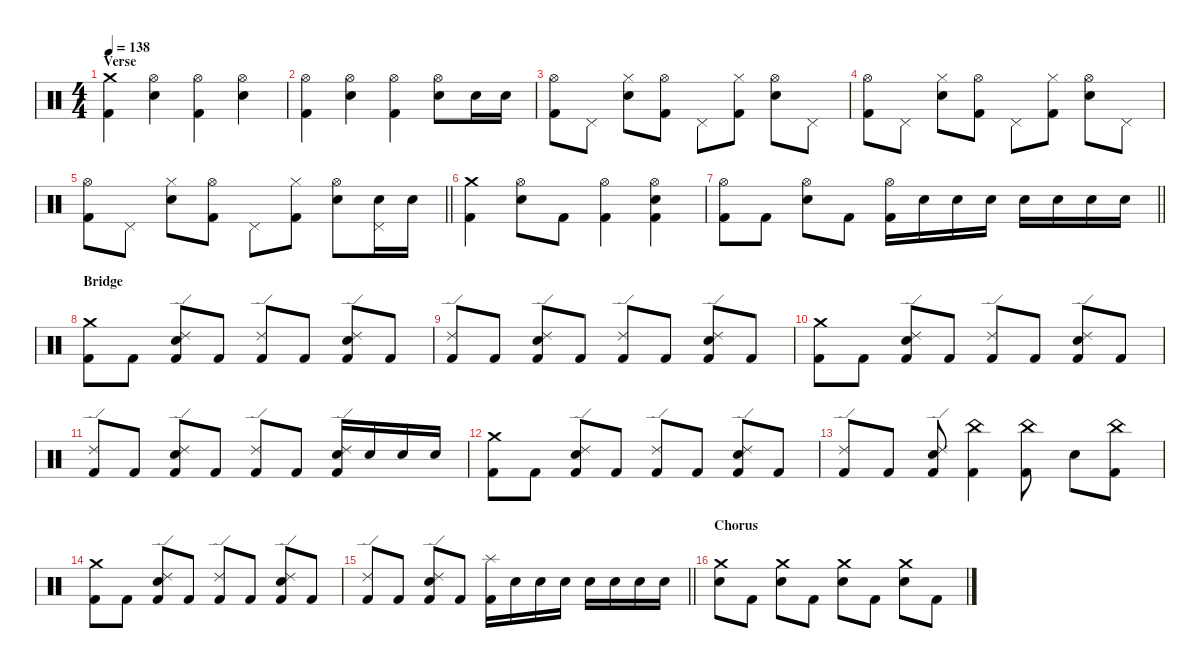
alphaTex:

\defaultSystemsLayout 4
\hideDynamics
\bracketExtendMode nobrackets
\singleTrackTrackNamePolicy hidden
\multiTrackTrackNamePolicy hidden
\firstSystemTrackNameMode fullname
\firstSystemTrackNameOrientation horizontal
\otherSystemsTrackNameOrientation horizontal
\track ("Drums" "drm.") {instrument percussion}
\staff {score}
\articulation defaults
\ts (4 4)
\section ("" "Verse")
\tempo 138
\clef neutral
\ks c
("Crash medium (hit)" "Kick (hit) 2").4{dy f beam Down} ("Hi-Hat (open)" "Snare (hit) 2").4{beam Down} ("Hi-Hat (open)" "Kick (hit) 2").4{beam Down} ("Hi-Hat (open)" "Snare (hit) 2").4{beam Down} |
("Hi-Hat (open)" "Kick (hit) 2").4{beam Down} ("Hi-Hat (open)" "Snare (hit) 2").4{beam Down} ("Hi-Hat (open)" "Kick (hit) 2").4{beam Down} ("Hi-Hat (open)" "Snare (hit) 2").8{beam Down} "Snare (hit) 2".16{beam Down} "Snare (hit) 2".16{beam Down} |
("Hi-Hat (open)" "Kick (hit) 2").8{beam Down} "Pedal Hi-Hat (hit)".8{beam Down} ("Hi-Hat (closed)" "Snare (hit) 2").8{beam Down} ("Hi-Hat (open)" "Kick (hit) 2").8{beam Down} "Pedal Hi-Hat (hit)".8{beam Down} ("Hi-Hat (closed)" "Kick (hit) 2").8{beam Down} ("Hi-Hat (open)" "Snare (hit) 2").8{beam Down} "Pedal Hi-Hat (hit)".8{beam Down} |
("Hi-Hat (open)" "Kick (hit) 2").8{beam Down} "Pedal Hi-Hat (hit)".8{beam Down} ("Hi-Hat (closed)" "Snare (hit) 2").8{beam Down} ("Hi-Hat (open)" "Kick (hit) 2").8{beam Down} "Pedal Hi-Hat (hit)".8{beam Down} ("Hi-Hat (closed)" "Kick (hit) 2").8{beam Down} ("Hi-Hat (open)" "Snare (hit) 2").8{beam Down} "Pedal Hi-Hat (hit)".8{beam Down} |
\barLineRight lightlight
("Hi-Hat (open)" "Kick (hit) 2").8{beam Down} "Pedal Hi-Hat (hit)".8{beam Down} ("Hi-Hat (closed)" "Snare (hit) 2").8{beam Down} ("Hi-Hat (open)" "Kick (hit) 2").8{beam Down} "Pedal Hi-Hat (hit)".8{beam Down} ("Hi-Hat (closed)" "Kick (hit) 2").8{beam Down} ("Hi-Hat (open)" "Snare (hit) 2").8{beam Down} ("Pedal Hi-Hat (hit)" "Snare (hit) 2").16{beam Down} "Snare (hit) 2".16{beam Down} |
("Crash medium (hit)" "Kick (hit) 2").4{beam Down} ("Hi-Hat (open)" "Snare (hit) 2").8{beam Down} "Kick (hit) 2".8{beam Down} ("Hi-Hat (open)" "Kick (hit) 2").4{beam Down} ("Hi-Hat (open)" "Snare (hit) 2" "Kick (hit) 2").4{beam Down} |
\barLineRight lightlight
("Hi-Hat (open)" "Kick (hit) 2").8{beam Down} "Kick (hit) 2".8{beam Down} ("Hi-Hat (open)" "Snare (hit) 2").8{beam Down} "Kick (hit) 2".8{beam Down} ("Hi-Hat (open)" "Kick (hit) 2").16{beam Down} "Snare (hit) 2".16{beam Down} "Snare (hit) 2".16{beam Down} "Snare (hit) 2".16{beam Down} "Snare (hit) 2".16{beam Down} "Snare (hit) 2".16{beam Down} "Snare (hit) 2".16{beam Down} "Snare (hit) 2".16{beam Down} |
\section ("" "Bridge")
("Crash medium (hit)" "Kick (hit) 2").8{beam Down} "Kick (hit) 2".8{beam Down} ("Ride (edge) 2" "Snare (hit) 2" "Kick (hit) 2").8{beam Up} "Kick (hit) 2".8{beam Up} ("Ride (edge) 2" "Kick (hit) 2").8{beam Up} "Kick (hit) 2".8{beam Up} ("Ride (edge) 2" "Snare (hit) 2" "Kick (hit) 2").8{beam Up} "Kick (hit) 2".8{beam Up} |
("Ride (edge) 2" "Kick (hit) 2").8{beam Up} "Kick (hit) 2".8{beam Up} ("Ride (edge) 2" "Snare (hit) 2" "Kick (hit) 2").8{beam Up} "Kick (hit) 2".8{beam Up} ("Ride (edge) 2" "Kick (hit) 2").8{beam Up} "Kick (hit) 2".8{beam Up} ("Ride (edge) 2" "Snare (hit) 2" "Kick (hit) 2").8{beam Up} "Kick (hit) 2".8{beam Up} |
("Crash medium (hit)" "Kick (hit) 2").8{beam Down} "Kick (hit) 2".8{beam Down} ("Ride (edge) 2" "Snare (hit) 2" "Kick (hit) 2").8{beam Up} "Kick (hit) 2".8{beam Up} ("Ride (edge) 2" "Kick (hit) 2").8{beam Up} "Kick (hit) 2".8{beam Up} ("Ride (edge) 2" "Snare (hit) 2" "Kick (hit) 2").8{beam Up} "Kick (hit) 2".8{beam Up} |
("Ride (edge) 2" "Kick (hit) 2").8{beam Up} "Kick (hit) 2".8{beam Up} ("Ride (edge) 2" "Snare (hit) 2" "Kick (hit) 2").8{beam Up} "Kick (hit) 2".8{beam Up} ("Ride (edge) 2" "Kick (hit) 2").8{beam Up} "Kick (hit) 2".8{beam Up} ("Ride (edge) 2" "Snare (hit) 2" "Kick (hit) 2").16{beam Up} "Snare (hit) 2".16{beam Up} "Snare (hit) 2".16{beam Up} "Snare (hit) 2".16{beam Up} |
("Crash medium (hit)" "Kick (hit) 2").8{beam Down} "Kick (hit) 2".8{beam Down} ("Ride (edge) 2" "Snare (hit) 2" "Kick (hit) 2").8{beam Up} "Kick (hit) 2".8{beam Up} ("Ride (edge) 2" "Kick (hit) 2").8{beam Up} "Kick (hit) 2".8{beam Up} ("Ride (edge) 2" "Snare (hit) 2" "Kick (hit) 2").8{beam Up} "Kick (hit) 2".8{beam Up} |
("Ride (edge) 2" "Kick (hit) 2").8{beam Up} "Kick (hit) 2".8{beam Up} ("Ride (edge) 2" "Snare (hit) 2" "Kick (hit) 2").8{beam Up} ("China (hit)" "Kick (hit) 2").4{beam Down} ("China (hit)" "Kick (hit) 2").8{beam Down} "Snare (hit) 2".8{beam Down} ("China (hit)" "Kick (hit) 2").8{beam Down} |
("Crash medium (hit)" "Kick (hit) 2").8{beam Down} "Kick (hit) 2".8{beam Down} ("Ride (edge) 2" "Snare (hit) 2" "Kick (hit) 2").8{beam Up} "Kick (hit) 2".8{beam Up} ("Ride (edge) 2" "Kick (hit) 2").8{beam Up} "Kick (hit) 2".8{beam Up} ("Ride (edge) 2" "Snare (hit) 2" "Kick (hit) 2").8{beam Up} "Kick (hit) 2".8{beam Up} |
\barLineRight lightlight
("Ride (edge) 2" "Kick (hit) 2").8{beam Up} "Kick (hit) 2".8{beam Up} ("Ride (edge) 2" "Snare (hit) 2" "Kick (hit) 2").8{beam Up} "Kick (hit) 2".8{beam Up} ("Splash (hit)" "Kick (hit) 2").16{beam Down} "Snare (hit) 2".16{beam Down} "Snare (hit) 2".16{beam Down} "Snare (hit) 2".16{beam Down} "Snare (hit) 2".16{beam Down} "Snare (hit) 2".16{beam Down} "Snare (hit) 2".16{beam Down} "Snare (hit) 2".16{beam Down} |
\section ("" "Chorus")
("Crash medium (hit)" "Snare (hit) 2").8{beam Down} "Kick (hit) 2".8{beam Down} ("Crash medium (hit)" "Snare (hit) 2").8{beam Down} "Kick (hit) 2".8{beam Down} ("Crash medium (hit)" "Snare (hit) 2").8{beam Down} "Kick (hit) 2".8{beam Down} ("Crash medium (hit)" "Snare (hit) 2").8{beam Down} "Kick (hit) 2".8{beam Down}
